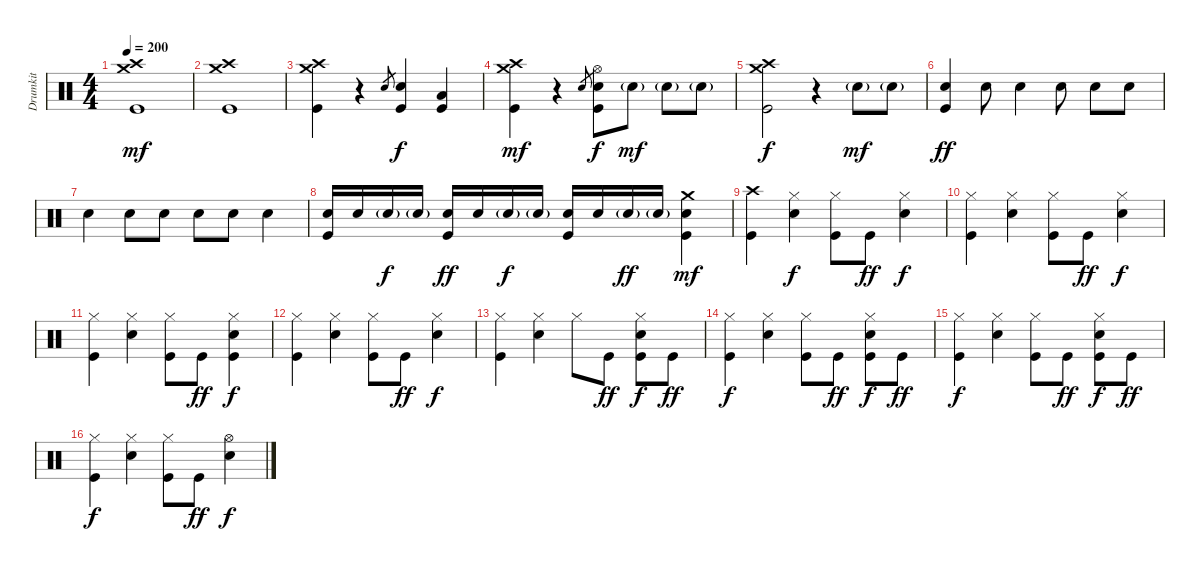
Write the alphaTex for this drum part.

\track ("Drumkit" "Drumkit") {instrument percussion}
\staff {score}
\articulation defaults
\ts (4 4)
\tempo 200
\clef neutral
\ks c
("Crash high (hit)" "Crash medium (hit)" "Kick (hit)").1{dy mf} |
("Crash high (hit)" "Crash medium (hit)" "Kick (hit)").1 |
("Crash high (hit)" "Crash medium (hit)" "Kick (hit)").4 r.4 "Snare (hit)".8{gr} ("Snare (hit) 2" "Kick (hit)").4{dy f} ("Low Tom (hit)" "Kick (hit)").4 |
("Crash high (hit)" "Crash medium (hit)" "Kick (hit)").4{dy mf} r.4 "Snare (hit)".8{gr} ("Hi-Hat (open)" "Snare (hit) 2" "Kick (hit)").8{dy f} "Snare (hit) 2"{g}.8{dy mf} "Snare (hit) 2"{g}.8 "Snare (hit) 2"{g}.8 |
("Crash high (hit)" "Crash medium (hit)" "Kick (hit)").2{dy f} r.4 "Snare (hit) 2"{g}.8{dy mf} "Snare (hit) 2"{g}.8 |
("Snare (hit) 2" "Kick (hit)").4{dy ff} "Snare (hit) 2".8 "Snare (hit) 2".4 "Snare (hit) 2".8 "Snare (hit) 2".8 "Snare (hit) 2".8 |
"Snare (hit) 2".4 "Snare (hit) 2".8 "Snare (hit) 2".8 "Snare (hit) 2".8 "Snare (hit) 2".8 "Snare (hit) 2".4 |
("Snare (hit) 2" "Kick (hit)").16 "Snare (hit) 2".16 "Snare (hit) 2"{g}.16{dy f} "Snare (hit) 2"{g}.16 ("Snare (hit) 2" "Kick (hit)").16{dy ff} "Snare (hit) 2".16 "Snare (hit) 2"{g}.16{dy f} "Snare (hit) 2"{g}.16 ("Snare (hit) 2" "Kick (hit)").16 "Snare (hit) 2".16 "Snare (hit) 2"{g}.16{dy ff} "Snare (hit) 2"{g}.16 ("Crash medium (hit)" "Snare (hit) 2" "Kick (hit)").4{dy mf} |
("Crash high (hit)" "Kick (hit)").4 ("Hi-Hat (closed)" "Snare (hit) 2").4{dy f} ("Hi-Hat (closed)" "Kick (hit)").8 "Kick (hit)".8{dy ff} ("Hi-Hat (closed)" "Snare (hit) 2").4{dy f} |
("Hi-Hat (closed)" "Kick (hit)").4 ("Hi-Hat (closed)" "Snare (hit) 2").4 ("Hi-Hat (closed)" "Kick (hit)").8 "Kick (hit)".8{dy ff} ("Hi-Hat (closed)" "Snare (hit) 2").4{dy f} |
("Hi-Hat (closed)" "Kick (hit)").4 ("Hi-Hat (closed)" "Snare (hit) 2").4 ("Hi-Hat (closed)" "Kick (hit)").8 "Kick (hit)".8{dy ff} ("Hi-Hat (closed)" "Snare (hit) 2" "Kick (hit)").4{dy f} |
("Hi-Hat (closed)" "Kick (hit)").4 ("Hi-Hat (closed)" "Snare (hit) 2").4 ("Hi-Hat (closed)" "Kick (hit)").8 "Kick (hit)".8{dy ff} ("Hi-Hat (closed)" "Snare (hit) 2").4{dy f} |
("Hi-Hat (closed)" "Kick (hit)").4 ("Hi-Hat (closed)" "Snare (hit) 2").4 "Hi-Hat (closed)".8 "Kick (hit)".8{dy ff} ("Hi-Hat (closed)" "Snare (hit) 2" "Kick (hit)").8{dy f} "Kick (hit)".8{dy ff} |
("Hi-Hat (closed)" "Kick (hit)").4{dy f} ("Hi-Hat (closed)" "Snare (hit) 2").4 ("Hi-Hat (closed)" "Kick (hit)").8 "Kick (hit)".8{dy ff} ("Hi-Hat (closed)" "Snare (hit) 2" "Kick (hit)").8{dy f} "Kick (hit)".8{dy ff} |
("Hi-Hat (closed)" "Kick (hit)").4{dy f} ("Hi-Hat (closed)" "Snare (hit) 2").4 ("Hi-Hat (closed)" "Kick (hit)").8 "Kick (hit)".8{dy ff} ("Hi-Hat (closed)" "Snare (hit) 2" "Kick (hit)").8{dy f} "Kick (hit)".8{dy ff} |
("Hi-Hat (closed)" "Kick (hit)").4{dy f} ("Hi-Hat (closed)" "Snare (hit) 2").4 ("Hi-Hat (closed)" "Kick (hit)").8 "Kick (hit)".8{dy ff} ("Hi-Hat (open)" "Snare (hit) 2").4{dy f}
